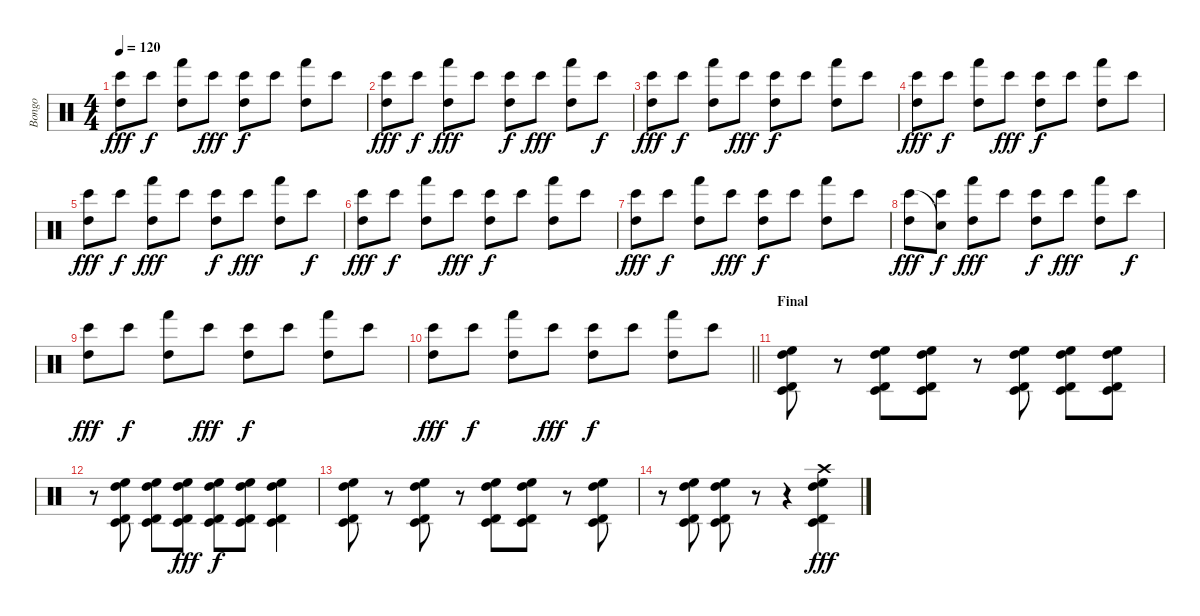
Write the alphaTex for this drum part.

\track ("Bongo" "Bongo") {instrument percussion}
\staff {score}
\articulation defaults
\ts (4 4)
\tempo 120
\clef neutral
\ks c
("Bongo High (hit)" "High Tom (hit)").8{dy fff} "Bongo High (hit)".8{dy f} ("Hand (hit)" "High Tom (hit)").8 "Bongo High (hit)".8{dy fff} ("Bongo High (hit)" "High Tom (hit)").8{dy f} "Bongo High (hit)".8 ("Hand (hit)" "High Tom (hit)").8 "Bongo High (hit)".8 |
("Bongo High (hit)" "High Tom (hit)").8{dy fff} "Bongo High (hit)".8{dy f} ("Hand (hit)" "High Tom (hit)").8{dy fff} "Bongo High (hit)".8 ("Bongo High (hit)" "High Tom (hit)").8{dy f} "Bongo High (hit)".8{dy fff} ("Hand (hit)" "High Tom (hit)").8 "Bongo High (hit)".8{dy f} |
("Bongo High (hit)" "High Tom (hit)").8{dy fff} "Bongo High (hit)".8{dy f} ("Hand (hit)" "High Tom (hit)").8 "Bongo High (hit)".8{dy fff} ("Bongo High (hit)" "High Tom (hit)").8{dy f} "Bongo High (hit)".8 ("Hand (hit)" "High Tom (hit)").8 "Bongo High (hit)".8 |
("Bongo High (hit)" "High Tom (hit)").8{dy fff} "Bongo High (hit)".8{dy f} ("Hand (hit)" "High Tom (hit)").8 "Bongo High (hit)".8{dy fff} ("Bongo High (hit)" "High Tom (hit)").8{dy f} "Bongo High (hit)".8 ("Hand (hit)" "High Tom (hit)").8 "Bongo High (hit)".8 |
("Bongo High (hit)" "High Tom (hit)").8{dy fff} "Bongo High (hit)".8{dy f} ("Hand (hit)" "High Tom (hit)").8{dy fff} "Bongo High (hit)".8 ("Bongo High (hit)" "High Tom (hit)").8{dy f} "Bongo High (hit)".8{dy fff} ("Hand (hit)" "High Tom (hit)").8 "Bongo High (hit)".8{dy f} |
("Bongo High (hit)" "High Tom (hit)").8{dy fff} "Bongo High (hit)".8{dy f} ("Hand (hit)" "High Tom (hit)").8 "Bongo High (hit)".8{dy fff} ("Bongo High (hit)" "High Tom (hit)").8{dy f} "Bongo High (hit)".8 ("Hand (hit)" "High Tom (hit)").8 "Bongo High (hit)".8 |
("Bongo High (hit)" "High Tom (hit)").8{dy fff} "Bongo High (hit)".8{dy f} ("Hand (hit)" "High Tom (hit)").8 "Bongo High (hit)".8{dy fff} ("Bongo High (hit)" "High Tom (hit)").8{dy f} "Bongo High (hit)".8 ("Hand (hit)" "High Tom (hit)").8 "Bongo High (hit)".8 |
("Bongo High (hit)" "High Tom (hit)").8{dy fff} ("Snare (hit)"{t} "Bongo High (hit)").8{dy f} ("Hand (hit)" "High Tom (hit)").8{dy fff} "Bongo High (hit)".8 ("Bongo High (hit)" "High Tom (hit)").8{dy f} "Bongo High (hit)".8{dy fff} ("Hand (hit)" "High Tom (hit)").8 "Bongo High (hit)".8{dy f} |
("Bongo High (hit)" "High Tom (hit)").8{dy fff} "Bongo High (hit)".8{dy f} ("Hand (hit)" "High Tom (hit)").8 "Bongo High (hit)".8{dy fff} ("Bongo High (hit)" "High Tom (hit)").8{dy f} "Bongo High (hit)".8 ("Hand (hit)" "High Tom (hit)").8 "Bongo High (hit)".8 |
\barLineRight lightlight
("Bongo High (hit)" "High Tom (hit)").8{dy fff} "Bongo High (hit)".8{dy f} ("Hand (hit)" "High Tom (hit)").8 "Bongo High (hit)".8{dy fff} ("Bongo High (hit)" "High Tom (hit)").8{dy f} "Bongo High (hit)".8 ("Hand (hit)" "High Tom (hit)").8 "Bongo High (hit)".8 |
\section ("" "Final")
("Timbale low (hit)" "Timbale high (hit)" "High Floor Tom (hit)" "High Tom (hit)").8 r.8 ("Timbale low (hit)" "Timbale high (hit)" "High Floor Tom (hit)" "High Tom (hit)").8 ("Timbale low (hit)" "Timbale high (hit)" "High Floor Tom (hit)" "High Tom (hit)").8 r.8 ("Timbale low (hit)" "Timbale high (hit)" "High Floor Tom (hit)" "High Tom (hit)").8 ("Timbale low (hit)" "Timbale high (hit)" "High Floor Tom (hit)" "High Tom (hit)").8 ("Timbale low (hit)" "Timbale high (hit)" "High Floor Tom (hit)" "High Tom (hit)").8 |
r.8 ("Timbale low (hit)" "Timbale high (hit)" "High Floor Tom (hit)" "High Tom (hit)").8 ("Timbale low (hit)" "Timbale high (hit)" "High Floor Tom (hit)" "High Tom (hit)").8 ("Timbale low (hit)" "Timbale high (hit)" "High Floor Tom (hit)" "High Tom (hit)").8{dy fff} ("Timbale low (hit)" "Timbale high (hit)" "High Floor Tom (hit)" "High Tom (hit)").8{dy f} ("Timbale low (hit)" "Timbale high (hit)" "High Floor Tom (hit)" "High Tom (hit)").8 ("Timbale low (hit)" "Timbale high (hit)" "High Floor Tom (hit)" "High Tom (hit)").4 |
("Timbale low (hit)" "Timbale high (hit)" "High Floor Tom (hit)" "High Tom (hit)").8 r.8 ("Timbale low (hit)" "Timbale high (hit)" "High Floor Tom (hit)" "High Tom (hit)").8 r.8 ("Timbale low (hit)" "Timbale high (hit)" "High Floor Tom (hit)" "High Tom (hit)").8 ("Timbale low (hit)" "Timbale high (hit)" "High Floor Tom (hit)" "High Tom (hit)").8 r.8 ("Timbale low (hit)" "Timbale high (hit)" "High Floor Tom (hit)" "High Tom (hit)").8 |
r.8 ("Timbale low (hit)" "Timbale high (hit)" "High Floor Tom (hit)" "High Tom (hit)").8 ("Timbale low (hit)" "Timbale high (hit)" "High Floor Tom (hit)" "High Tom (hit)").8 r.8 r.4 ("Crash high (hit)" "Timbale low (hit)" "Timbale high (hit)" "High Floor Tom (hit)" "High Tom (hit)").4{dy fff}
